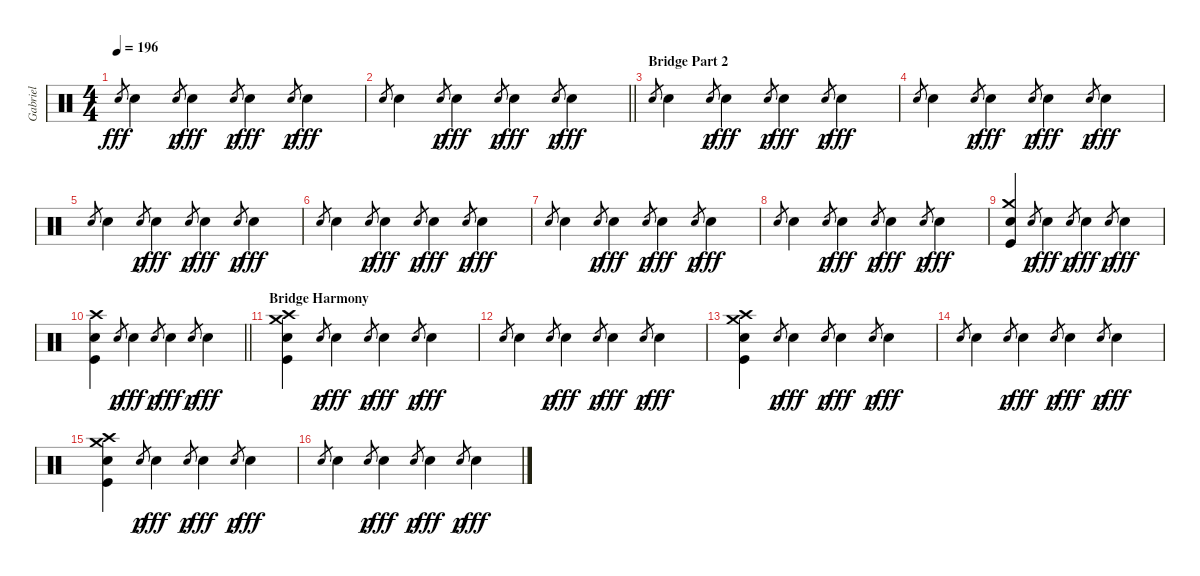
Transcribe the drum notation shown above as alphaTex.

\track ("Gabriel" "Gabriel") {instrument percussion}
\staff {score}
\articulation defaults
\ts (4 4)
\tempo 196
\clef neutral
\ks aminor "Hand Clap (hit)".8{gr dy fff} "Hand Clap (hit)".4 "Hand Clap (hit)".8{gr dy p} "Hand Clap (hit)".4{dy fff} "Hand Clap (hit)".8{gr dy p} "Hand Clap (hit)".4{dy fff} "Hand Clap (hit)".8{gr dy p} "Hand Clap (hit)".4{dy fff}
|
\barLineRight lightlight "Hand Clap (hit)".8{gr} "Hand Clap (hit)".4 "Hand Clap (hit)".8{gr dy p} "Hand Clap (hit)".4{dy fff} "Hand Clap (hit)".8{gr dy p} "Hand Clap (hit)".4{dy fff} "Hand Clap (hit)".8{gr dy p} "Hand Clap (hit)".4{dy fff}
|
\section ("" "Bridge Part 2")
"Hand Clap (hit)".8{gr} "Hand Clap (hit)".4 "Hand Clap (hit)".8{gr dy p} "Hand Clap (hit)".4{dy fff} "Hand Clap (hit)".8{gr dy p} "Hand Clap (hit)".4{dy fff} "Hand Clap (hit)".8{gr dy p} "Hand Clap (hit)".4{dy fff} |
"Hand Clap (hit)".8{gr} "Hand Clap (hit)".4 "Hand Clap (hit)".8{gr dy p} "Hand Clap (hit)".4{dy fff} "Hand Clap (hit)".8{gr dy p} "Hand Clap (hit)".4{dy fff} "Hand Clap (hit)".8{gr dy p} "Hand Clap (hit)".4{dy fff} |
"Hand Clap (hit)".8{gr} "Hand Clap (hit)".4 "Hand Clap (hit)".8{gr dy p} "Hand Clap (hit)".4{dy fff} "Hand Clap (hit)".8{gr dy p} "Hand Clap (hit)".4{dy fff} "Hand Clap (hit)".8{gr dy p} "Hand Clap (hit)".4{dy fff} |
"Hand Clap (hit)".8{gr} "Hand Clap (hit)".4 "Hand Clap (hit)".8{gr dy p} "Hand Clap (hit)".4{dy fff} "Hand Clap (hit)".8{gr dy p} "Hand Clap (hit)".4{dy fff} "Hand Clap (hit)".8{gr dy p} "Hand Clap (hit)".4{dy fff} |
"Hand Clap (hit)".8{gr} "Hand Clap (hit)".4 "Hand Clap (hit)".8{gr dy p} "Hand Clap (hit)".4{dy fff} "Hand Clap (hit)".8{gr dy p} "Hand Clap (hit)".4{dy fff} "Hand Clap (hit)".8{gr dy p} "Hand Clap (hit)".4{dy fff} |
"Hand Clap (hit)".8{gr} "Hand Clap (hit)".4 "Hand Clap (hit)".8{gr dy p} "Hand Clap (hit)".4{dy fff} "Hand Clap (hit)".8{gr dy p} "Hand Clap (hit)".4{dy fff} "Hand Clap (hit)".8{gr dy p} "Hand Clap (hit)".4{dy fff} |
("Crash medium (hit)" "Kick (hit)" "Hand Clap (hit)").4 "Hand Clap (hit)".8{gr dy p} "Hand Clap (hit)".4{dy fff} "Hand Clap (hit)".8{gr dy p} "Hand Clap (hit)".4{dy fff} "Hand Clap (hit)".8{gr dy p} "Hand Clap (hit)".4{dy fff} |
\barLineRight lightlight
("Crash high (hit)" "Kick (hit)" "Hand Clap (hit)").4 "Hand Clap (hit)".8{gr dy p} "Hand Clap (hit)".4{dy fff} "Hand Clap (hit)".8{gr dy p} "Hand Clap (hit)".4{dy fff} "Hand Clap (hit)".8{gr dy p} "Hand Clap (hit)".4{dy fff} |
\section ("" "Bridge Harmony")
("Crash medium (hit)" "Crash high (hit)" "Kick (hit)" "Hand Clap (hit)").4 "Hand Clap (hit)".8{gr dy p} "Hand Clap (hit)".4{dy fff} "Hand Clap (hit)".8{gr dy p} "Hand Clap (hit)".4{dy fff} "Hand Clap (hit)".8{gr dy p} "Hand Clap (hit)".4{dy fff} |
"Hand Clap (hit)".8{gr} "Hand Clap (hit)".4 "Hand Clap (hit)".8{gr dy p} "Hand Clap (hit)".4{dy fff} "Hand Clap (hit)".8{gr dy p} "Hand Clap (hit)".4{dy fff} "Hand Clap (hit)".8{gr dy p} "Hand Clap (hit)".4{dy fff} |
("Crash medium (hit)" "Crash high (hit)" "Kick (hit)" "Hand Clap (hit)").4 "Hand Clap (hit)".8{gr dy p} "Hand Clap (hit)".4{dy fff} "Hand Clap (hit)".8{gr dy p} "Hand Clap (hit)".4{dy fff} "Hand Clap (hit)".8{gr dy p} "Hand Clap (hit)".4{dy fff} |
"Hand Clap (hit)".8{gr} "Hand Clap (hit)".4 "Hand Clap (hit)".8{gr dy p} "Hand Clap (hit)".4{dy fff} "Hand Clap (hit)".8{gr dy p} "Hand Clap (hit)".4{dy fff} "Hand Clap (hit)".8{gr dy p} "Hand Clap (hit)".4{dy fff} |
("Crash medium (hit)" "Crash high (hit)" "Kick (hit)" "Hand Clap (hit)").4 "Hand Clap (hit)".8{gr dy p} "Hand Clap (hit)".4{dy fff} "Hand Clap (hit)".8{gr dy p} "Hand Clap (hit)".4{dy fff} "Hand Clap (hit)".8{gr dy p} "Hand Clap (hit)".4{dy fff} |
"Hand Clap (hit)".8{gr} "Hand Clap (hit)".4 "Hand Clap (hit)".8{gr dy p} "Hand Clap (hit)".4{dy fff} "Hand Clap (hit)".8{gr dy p} "Hand Clap (hit)".4{dy fff} "Hand Clap (hit)".8{gr dy p} "Hand Clap (hit)".4{dy fff}
